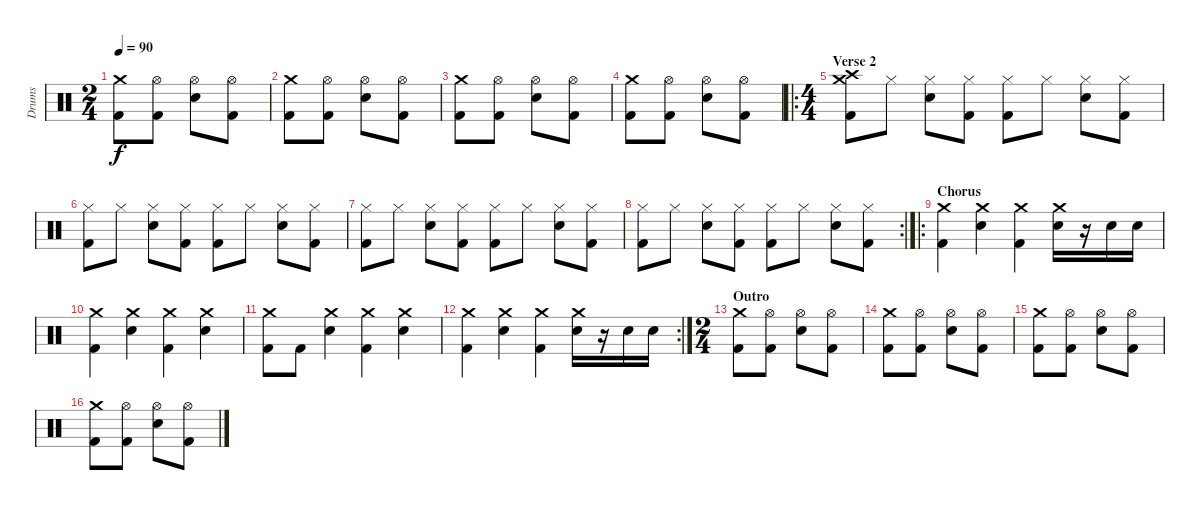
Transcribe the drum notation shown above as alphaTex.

\track ("Drums" "Drums") {instrument percussion}
\staff {score}
\articulation defaults
\ts (2 4)
\tempo 90
\clef neutral
\ks c
("Crash medium (hit)" "Kick (hit) 2").8{dy f} ("Hi-Hat (open)" "Kick (hit) 2").8 ("Hi-Hat (open)" "Snare (hit) 2").8 ("Hi-Hat (open)" "Kick (hit) 2").8 |
("Crash medium (hit)" "Kick (hit) 2").8 ("Hi-Hat (open)" "Kick (hit) 2").8 ("Hi-Hat (open)" "Snare (hit) 2").8 ("Hi-Hat (open)" "Kick (hit) 2").8 |
("Crash medium (hit)" "Kick (hit) 2").8 ("Hi-Hat (open)" "Kick (hit) 2").8 ("Hi-Hat (open)" "Snare (hit) 2").8 ("Hi-Hat (open)" "Kick (hit) 2").8 |
("Crash medium (hit)" "Kick (hit) 2").8 ("Hi-Hat (open)" "Kick (hit) 2").8 ("Hi-Hat (open)" "Snare (hit) 2").8 ("Hi-Hat (open)" "Kick (hit) 2").8 |
\ro
\ts (4 4)
\section ("" "Verse 2")
("Crash high (hit)" "Crash medium (hit)" "Kick (hit) 2").8 "Hi-Hat (closed)".8 ("Hi-Hat (closed)" "Snare (hit) 2").8 ("Hi-Hat (closed)" "Kick (hit) 2").8 ("Hi-Hat (closed)" "Kick (hit) 2").8 "Hi-Hat (closed)".8 ("Hi-Hat (closed)" "Snare (hit) 2").8 ("Hi-Hat (closed)" "Kick (hit) 2").8 |
("Hi-Hat (closed)" "Kick (hit) 2").8 "Hi-Hat (closed)".8 ("Hi-Hat (closed)" "Snare (hit) 2").8 ("Hi-Hat (closed)" "Kick (hit) 2").8 ("Hi-Hat (closed)" "Kick (hit) 2").8 "Hi-Hat (closed)".8 ("Hi-Hat (closed)" "Snare (hit) 2").8 ("Hi-Hat (closed)" "Kick (hit) 2").8 |
("Hi-Hat (closed)" "Kick (hit) 2").8 "Hi-Hat (closed)".8 ("Hi-Hat (closed)" "Snare (hit) 2").8 ("Hi-Hat (closed)" "Kick (hit) 2").8 ("Hi-Hat (closed)" "Kick (hit) 2").8 "Hi-Hat (closed)".8 ("Hi-Hat (closed)" "Snare (hit) 2").8 ("Hi-Hat (closed)" "Kick (hit) 2").8 |
\rc 2
("Hi-Hat (closed)" "Kick (hit) 2").8 "Hi-Hat (closed)".8 ("Hi-Hat (closed)" "Snare (hit) 2").8 ("Hi-Hat (closed)" "Kick (hit) 2").8 ("Hi-Hat (closed)" "Kick (hit) 2").8 "Hi-Hat (closed)".8 ("Hi-Hat (closed)" "Snare (hit) 2").8 ("Hi-Hat (closed)" "Kick (hit) 2").8 |
\ro
\section ("" "Chorus")
("Crash medium (hit)" "Kick (hit) 2").4 ("Crash medium (hit)" "Snare (hit) 2").4 ("Crash medium (hit)" "Kick (hit) 2").4 ("Crash medium (hit)" "Snare (hit) 2").16 r.16 "Snare (hit) 2".16 "Snare (hit) 2".16 |
("Crash medium (hit)" "Kick (hit) 2").4 ("Crash medium (hit)" "Snare (hit) 2").4 ("Crash medium (hit)" "Kick (hit) 2").4 ("Crash medium (hit)" "Snare (hit) 2").4 |
("Crash medium (hit)" "Kick (hit) 2").8 "Kick (hit) 2".8 ("Crash medium (hit)" "Snare (hit) 2").4 ("Crash medium (hit)" "Kick (hit) 2").4 ("Crash medium (hit)" "Snare (hit) 2").4 |
\rc 2
("Crash medium (hit)" "Kick (hit) 2").4 ("Crash medium (hit)" "Snare (hit) 2").4 ("Crash medium (hit)" "Kick (hit) 2").4 ("Crash medium (hit)" "Snare (hit) 2").16 r.16 "Snare (hit) 2".16 "Snare (hit) 2".16 |
\ts (2 4)
\section ("" "Outro")
("Crash medium (hit)" "Kick (hit) 2").8 ("Hi-Hat (open)" "Kick (hit) 2").8 ("Hi-Hat (open)" "Snare (hit) 2").8 ("Hi-Hat (open)" "Kick (hit) 2").8 |
("Crash medium (hit)" "Kick (hit) 2").8 ("Hi-Hat (open)" "Kick (hit) 2").8 ("Hi-Hat (open)" "Snare (hit) 2").8 ("Hi-Hat (open)" "Kick (hit) 2").8 |
("Crash medium (hit)" "Kick (hit) 2").8 ("Hi-Hat (open)" "Kick (hit) 2").8 ("Hi-Hat (open)" "Snare (hit) 2").8 ("Hi-Hat (open)" "Kick (hit) 2").8 |
("Crash medium (hit)" "Kick (hit) 2").8 ("Hi-Hat (open)" "Kick (hit) 2").8 ("Hi-Hat (open)" "Snare (hit) 2").8 ("Hi-Hat (open)" "Kick (hit) 2").8
